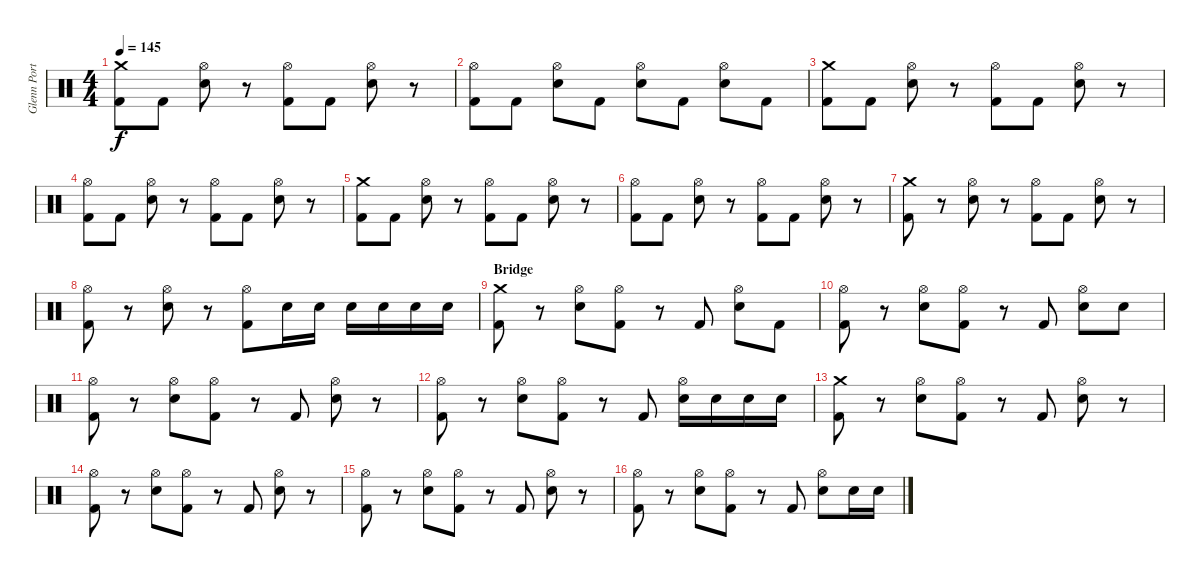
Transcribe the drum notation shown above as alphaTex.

\track ("Glenn Porter - Drums" "Glenn Port") {instrument percussion}
\staff {score}
\articulation defaults
\ts (4 4)
\tempo 145
\clef neutral
\ks c
("Crash medium (hit)" "Kick (hit) 2").8{dy f} "Kick (hit) 2".8 ("Hi-Hat (open)" "Electric Snare (hit)").8 r.8 ("Hi-Hat (open)" "Kick (hit) 2").8 "Kick (hit) 2".8 ("Hi-Hat (open)" "Electric Snare (hit)").8 r.8 |
("Hi-Hat (open)" "Kick (hit) 2").8 "Kick (hit) 2".8 ("Hi-Hat (open)" "Electric Snare (hit)").8 "Kick (hit) 2".8 ("Hi-Hat (open)" "Electric Snare (hit)").8 "Kick (hit) 2".8 ("Hi-Hat (open)" "Electric Snare (hit)").8 "Kick (hit) 2".8 |
("Crash medium (hit)" "Kick (hit) 2").8 "Kick (hit) 2".8 ("Hi-Hat (open)" "Electric Snare (hit)").8 r.8 ("Hi-Hat (open)" "Kick (hit) 2").8 "Kick (hit) 2".8 ("Hi-Hat (open)" "Electric Snare (hit)").8 r.8 |
("Hi-Hat (open)" "Kick (hit) 2").8 "Kick (hit) 2".8 ("Hi-Hat (open)" "Electric Snare (hit)").8 r.8 ("Hi-Hat (open)" "Kick (hit) 2").8 "Kick (hit) 2".8 ("Hi-Hat (open)" "Electric Snare (hit)").8 r.8 |
("Crash medium (hit)" "Kick (hit) 2").8 "Kick (hit) 2".8 ("Hi-Hat (open)" "Electric Snare (hit)").8 r.8 ("Hi-Hat (open)" "Kick (hit) 2").8 "Kick (hit) 2".8 ("Hi-Hat (open)" "Electric Snare (hit)").8 r.8 |
("Hi-Hat (open)" "Kick (hit) 2").8 "Kick (hit) 2".8 ("Hi-Hat (open)" "Electric Snare (hit)").8 r.8 ("Hi-Hat (open)" "Kick (hit) 2").8 "Kick (hit) 2".8 ("Hi-Hat (open)" "Electric Snare (hit)").8 r.8 |
("Crash medium (hit)" "Kick (hit) 2").8 r.8 ("Hi-Hat (open)" "Electric Snare (hit)").8 r.8 ("Hi-Hat (open)" "Kick (hit) 2").8 "Kick (hit) 2".8 ("Hi-Hat (open)" "Electric Snare (hit)").8 r.8 |
("Hi-Hat (open)" "Kick (hit) 2").8 r.8 ("Hi-Hat (open)" "Electric Snare (hit)").8 r.8 ("Hi-Hat (open)" "Kick (hit) 2").8 "Electric Snare (hit)".16 "Electric Snare (hit)".16 "Electric Snare (hit)".16 "Electric Snare (hit)".16 "Electric Snare (hit)".16 "Electric Snare (hit)".16 |
\section ("" "Bridge")
("Crash medium (hit)" "Kick (hit) 2").8 r.8 ("Hi-Hat (open)" "Electric Snare (hit)").8 ("Hi-Hat (open)" "Kick (hit) 2").8 r.8 "Kick (hit) 2".8 ("Hi-Hat (open)" "Electric Snare (hit)").8 "Kick (hit) 2".8 |
("Hi-Hat (open)" "Kick (hit) 2").8 r.8 ("Hi-Hat (open)" "Electric Snare (hit)").8 ("Hi-Hat (open)" "Kick (hit) 2").8 r.8 "Kick (hit) 2".8 ("Hi-Hat (open)" "Electric Snare (hit)").8 "Electric Snare (hit)".8 |
("Hi-Hat (open)" "Kick (hit) 2").8 r.8 ("Hi-Hat (open)" "Electric Snare (hit)").8 ("Hi-Hat (open)" "Kick (hit) 2").8 r.8 "Kick (hit) 2".8 ("Hi-Hat (open)" "Electric Snare (hit)").8 r.8 |
("Hi-Hat (open)" "Kick (hit) 2").8 r.8 ("Hi-Hat (open)" "Electric Snare (hit)").8 ("Hi-Hat (open)" "Kick (hit) 2").8 r.8 "Kick (hit) 2".8 ("Hi-Hat (open)" "Electric Snare (hit)").16 "Electric Snare (hit)".16 "Electric Snare (hit)".16 "Electric Snare (hit)".16 |
("Crash medium (hit)" "Kick (hit) 2").8 r.8 ("Hi-Hat (open)" "Electric Snare (hit)").8 ("Hi-Hat (open)" "Kick (hit) 2").8 r.8 "Kick (hit) 2".8 ("Hi-Hat (open)" "Electric Snare (hit)").8 r.8 |
("Hi-Hat (open)" "Kick (hit) 2").8 r.8 ("Hi-Hat (open)" "Electric Snare (hit)").8 ("Hi-Hat (open)" "Kick (hit) 2").8 r.8 "Kick (hit) 2".8 ("Hi-Hat (open)" "Electric Snare (hit)").8 r.8 |
("Hi-Hat (open)" "Kick (hit) 2").8 r.8 ("Hi-Hat (open)" "Electric Snare (hit)").8 ("Hi-Hat (open)" "Kick (hit) 2").8 r.8 "Kick (hit) 2".8 ("Hi-Hat (open)" "Electric Snare (hit)").8 r.8 |
("Hi-Hat (open)" "Kick (hit) 2").8 r.8 ("Hi-Hat (open)" "Electric Snare (hit)").8 ("Hi-Hat (open)" "Kick (hit) 2").8 r.8 "Kick (hit) 2".8 ("Hi-Hat (open)" "Electric Snare (hit)").8 "Electric Snare (hit)".16 "Electric Snare (hit)".16
